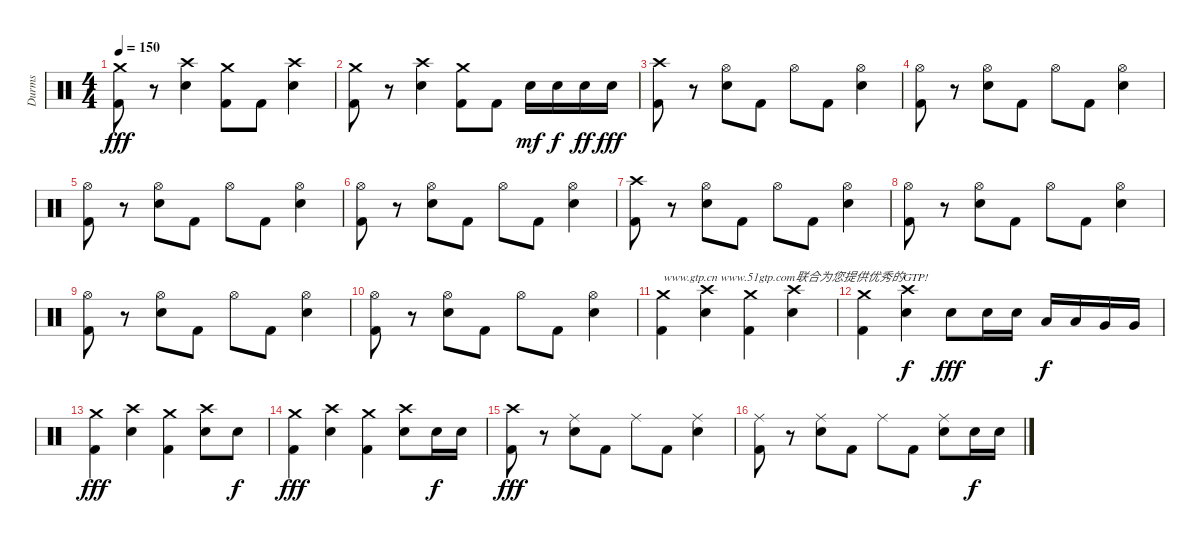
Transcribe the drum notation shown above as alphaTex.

\track ("Durms" "Durms") {instrument percussion}
\staff {score}
\articulation defaults
\ts (4 4)
\tempo 150
\clef neutral
\ks c
("Crash medium (hit)" "Kick (hit) 2").8{dy fff} r.8 ("Crash high (hit)" "Electric Snare (hit)").4 ("Crash medium (hit)" "Kick (hit) 2").8 "Kick (hit) 2".8 ("Crash high (hit)" "Electric Snare (hit)").4 |
("Crash medium (hit)" "Kick (hit) 2").8 r.8 ("Crash high (hit)" "Electric Snare (hit)").4 ("Crash medium (hit)" "Kick (hit) 2").8 "Kick (hit) 2".8 "Electric Snare (hit)".16{dy mf} "Electric Snare (hit)".16{dy f} "Electric Snare (hit)".16{dy ff} "Electric Snare (hit)".16{dy fff} |
("Crash high (hit)" "Kick (hit) 2").8 r.8 ("Hi-Hat (open)" "Electric Snare (hit)").8 "Kick (hit) 2".8 "Hi-Hat (open)".8 "Kick (hit) 2".8 ("Hi-Hat (open)" "Electric Snare (hit)").4 |
("Hi-Hat (open)" "Kick (hit) 2").8 r.8 ("Hi-Hat (open)" "Electric Snare (hit)").8 "Kick (hit) 2".8 "Hi-Hat (open)".8 "Kick (hit) 2".8 ("Hi-Hat (open)" "Electric Snare (hit)").4 |
("Hi-Hat (open)" "Kick (hit) 2").8 r.8 ("Hi-Hat (open)" "Electric Snare (hit)").8 "Kick (hit) 2".8 "Hi-Hat (open)".8 "Kick (hit) 2".8 ("Hi-Hat (open)" "Electric Snare (hit)").4 |
("Hi-Hat (open)" "Kick (hit) 2").8 r.8 ("Hi-Hat (open)" "Electric Snare (hit)").8 "Kick (hit) 2".8 "Hi-Hat (open)".8 "Kick (hit) 2".8 ("Hi-Hat (open)" "Electric Snare (hit)").4 |
("Crash high (hit)" "Kick (hit) 2").8 r.8 ("Hi-Hat (open)" "Electric Snare (hit)").8 "Kick (hit) 2".8 "Hi-Hat (open)".8 "Kick (hit) 2".8 ("Hi-Hat (open)" "Electric Snare (hit)").4 |
("Hi-Hat (open)" "Kick (hit) 2").8 r.8 ("Hi-Hat (open)" "Electric Snare (hit)").8 "Kick (hit) 2".8 "Hi-Hat (open)".8 "Kick (hit) 2".8 ("Hi-Hat (open)" "Electric Snare (hit)").4 |
("Hi-Hat (open)" "Kick (hit) 2").8 r.8 ("Hi-Hat (open)" "Electric Snare (hit)").8 "Kick (hit) 2".8 "Hi-Hat (open)".8 "Kick (hit) 2".8 ("Hi-Hat (open)" "Electric Snare (hit)").4 |
("Hi-Hat (open)" "Kick (hit) 2").8 r.8 ("Hi-Hat (open)" "Electric Snare (hit)").8 "Kick (hit) 2".8 "Hi-Hat (open)".8 "Kick (hit) 2".8 ("Hi-Hat (open)" "Electric Snare (hit)").4 |
("Crash medium (hit)" "Kick (hit) 2").4{txt "www.gtp.cn www.51gtp.com联合为您提供优秀的GTP!"} ("Crash high (hit)" "Electric Snare (hit)").4 ("Crash medium (hit)" "Kick (hit) 2").4 ("Crash high (hit)" "Electric Snare (hit)").4 |
("Crash medium (hit)" "Kick (hit) 2").4 ("Crash high (hit)" "Electric Snare (hit)").4{dy f} "Electric Snare (hit)".8{dy fff} "Electric Snare (hit)".16 "Electric Snare (hit)".16 "Low Tom (hit)".16{dy f} "Low Tom (hit)".16 "Very Low Tom (hit)".16 "Very Low Tom (hit)".16 |
("Crash medium (hit)" "Kick (hit) 2").4{dy fff} ("Crash high (hit)" "Electric Snare (hit)").4 ("Crash medium (hit)" "Kick (hit) 2").4 ("Crash high (hit)" "Electric Snare (hit)").8 "Electric Snare (hit)".8{dy f} |
("Crash medium (hit)" "Kick (hit) 2").4{dy fff} ("Crash high (hit)" "Electric Snare (hit)").4 ("Crash medium (hit)" "Kick (hit) 2").4 ("Crash high (hit)" "Electric Snare (hit)").8 "Electric Snare (hit)".16{dy f} "Electric Snare (hit)".16 |
("Crash high (hit)" "Kick (hit) 2").8{dy fff} r.8 ("Ride (middle)" "Electric Snare (hit)").8 "Kick (hit) 2".8 "Ride (middle)".8 "Kick (hit) 2".8 ("Ride (middle)" "Electric Snare (hit)").4 |
("Ride (middle)" "Kick (hit) 2").8 r.8 ("Ride (middle)" "Electric Snare (hit)").8 "Kick (hit) 2".8 "Ride (middle)".8 "Kick (hit) 2".8 ("Ride (middle)" "Electric Snare (hit)").8 "Electric Snare (hit)".16{dy f} "Electric Snare (hit)".16
